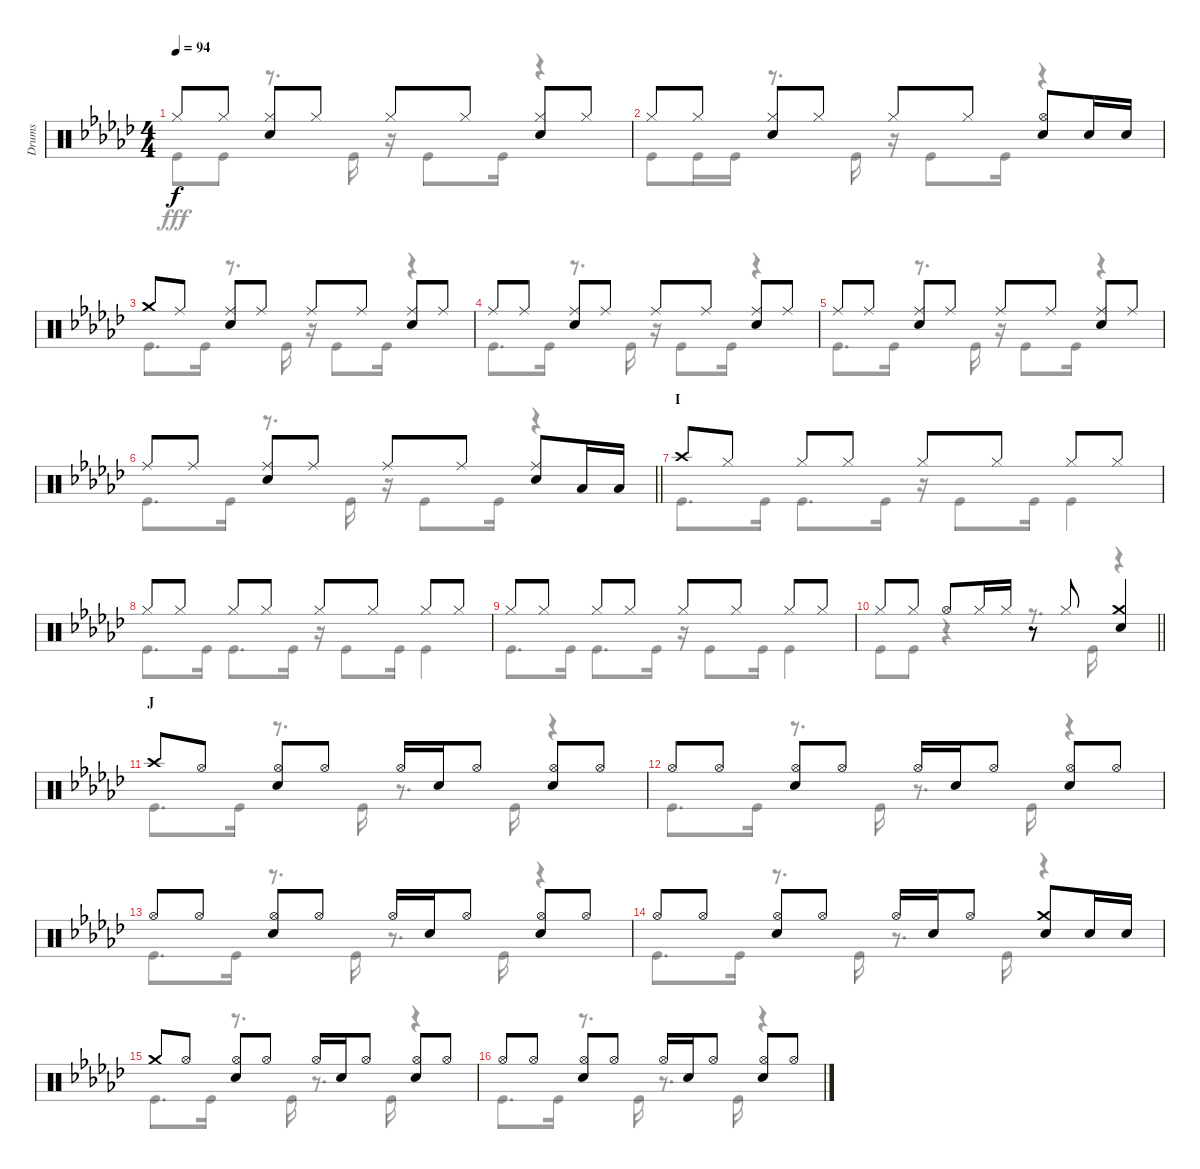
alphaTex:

\track ("Drums" "Drums") {instrument percussion}
\staff {score}
\articulation defaults
\voice
\ts (4 4)
\tempo 94
\clef neutral
\ks gb "Hi-Hat (closed)".8{dy f} "Hi-Hat (closed)".8
("Hi-Hat (closed)" "Snare (hit) 2").8 "Hi-Hat (closed)".8 "Hi-Hat (closed)".8 "Hi-Hat (closed)".8 ("Hi-Hat (closed)" "Snare (hit) 2").8 "Hi-Hat (closed)".8 |
"Hi-Hat (closed)".8 "Hi-Hat (closed)".8 ("Hi-Hat (closed)" "Snare (hit) 2").8 "Hi-Hat (closed)".8 "Hi-Hat (closed)".8 "Hi-Hat (closed)".8 ("Hi-Hat (open)" "Snare (hit) 2").8 "Snare (hit) 2".16 "Snare (hit) 2".16 |
"Crash medium (hit)".8 "Ride (middle)".8 ("Ride (middle)" "Snare (hit) 2").8 "Ride (middle)".8 "Ride (middle)".8 "Ride (middle)".8 ("Ride (middle)" "Snare (hit) 2").8 "Ride (middle)".8 |
"Ride (middle)".8 "Ride (middle)".8 ("Ride (middle)" "Snare (hit) 2").8 "Ride (middle)".8 "Ride (middle)".8 "Ride (middle)".8 ("Ride (middle)" "Snare (hit) 2").8 "Ride (middle)".8 |
"Ride (middle)".8 "Ride (middle)".8 ("Ride (middle)" "Snare (hit) 2").8 "Ride (middle)".8 "Ride (middle)".8 "Ride (middle)".8 ("Ride (middle)" "Snare (hit) 2").8 "Ride (middle)".8 |
\barLineRight lightlight "Ride (middle)".8 "Ride (middle)".8
("Ride (middle)" "Snare (hit) 2").8 "Ride (middle)".8 "Ride (middle)".8 "Ride (middle)".8 ("Ride (middle)" "Snare (hit) 2").8 "Low Tom (hit)".16 "Low Tom (hit)".16 |
\section ("" "I")
"Crash high (hit)".8 "Hi-Hat (closed)".8 "Hi-Hat (closed)".8 "Hi-Hat (closed)".8 "Hi-Hat (closed)".8 "Hi-Hat (closed)".8 "Hi-Hat (closed)".8 "Hi-Hat (closed)".8 |
"Hi-Hat (closed)".8 "Hi-Hat (closed)".8 "Hi-Hat (closed)".8 "Hi-Hat (closed)".8 "Hi-Hat (closed)".8 "Hi-Hat (closed)".8 "Hi-Hat (closed)".8 "Hi-Hat (closed)".8 |
"Hi-Hat (closed)".8 "Hi-Hat (closed)".8 "Hi-Hat (closed)".8 "Hi-Hat (closed)".8 "Hi-Hat (closed)".8 "Hi-Hat (closed)".8 "Hi-Hat (closed)".8 "Hi-Hat (closed)".8 |
\barLineRight lightlight "Hi-Hat (closed)".8 "Hi-Hat (closed)".8 "Hi-Hat (open)".8 "Hi-Hat (closed)".16 "Hi-Hat (closed)".16
r.8 "Hi-Hat (closed)".8 ("Crash medium (hit)" "Snare (hit) 2").4 |
\section ("" "J")
"Crash high (hit)".8 "Hi-Hat (open)".8 ("Hi-Hat (open)" "Snare (hit) 2").8 "Hi-Hat (open)".8 "Hi-Hat (open)".16 "Snare (hit) 2".16 "Hi-Hat (open)".8 ("Hi-Hat (open)" "Snare (hit) 2").8 "Hi-Hat (open)".8 |
"Hi-Hat (open)".8 "Hi-Hat (open)".8 ("Hi-Hat (open)" "Snare (hit) 2").8 "Hi-Hat (open)".8 "Hi-Hat (open)".16 "Snare (hit) 2".16 "Hi-Hat (open)".8 ("Hi-Hat (open)" "Snare (hit) 2").8 "Hi-Hat (open)".8 |
"Hi-Hat (open)".8 "Hi-Hat (open)".8 ("Hi-Hat (open)" "Snare (hit) 2").8 "Hi-Hat (open)".8 "Hi-Hat (open)".16 "Snare (hit) 2".16 "Hi-Hat (open)".8 ("Hi-Hat (open)" "Snare (hit) 2").8 "Hi-Hat (open)".8 |
"Hi-Hat (open)".8 "Hi-Hat (open)".8 ("Hi-Hat (open)" "Snare (hit) 2").8 "Hi-Hat (open)".8 "Hi-Hat (open)".16 "Snare (hit) 2".16 "Hi-Hat (open)".8 ("Crash medium (hit)" "Snare (hit) 2").8 "Snare (hit) 2".16 "Snare (hit) 2".16 |
"Crash medium (hit)".8 "Hi-Hat (open)".8 ("Hi-Hat (open)" "Snare (hit) 2").8 "Hi-Hat (open)".8 "Hi-Hat (open)".16 "Snare (hit) 2".16 "Hi-Hat (open)".8 ("Hi-Hat (open)" "Snare (hit) 2").8 "Hi-Hat (open)".8 |
"Hi-Hat (open)".8 "Hi-Hat (open)".8 ("Hi-Hat (open)" "Snare (hit) 2").8 "Hi-Hat (open)".8 "Hi-Hat (open)".16 "Snare (hit) 2".16 "Hi-Hat (open)".8 ("Hi-Hat (open)" "Snare (hit) 2").8 "Hi-Hat (open)".8
\voice
\clef neutral
\ottava regular
\simile none
\ks gb "Kick (hit)".8{dy fff} "Kick (hit)".8
r.8{d} "Kick (hit)".16 r.16 "Kick (hit)".8 "Kick (hit)".16 r.4 |
"Kick (hit)".8 "Kick (hit)".16 "Kick (hit)".16 r.8{d} "Kick (hit)".16 r.16 "Kick (hit)".8 "Kick (hit)".16 r.4 |
"Kick (hit)".8{d} "Kick (hit)".16 r.8{d} "Kick (hit)".16 r.16 "Kick (hit)".8 "Kick (hit)".16 r.4 |
"Kick (hit)".8{d} "Kick (hit)".16 r.8{d} "Kick (hit)".16 r.16 "Kick (hit)".8 "Kick (hit)".16 r.4 |
"Kick (hit)".8{d} "Kick (hit)".16 r.8{d} "Kick (hit)".16 r.16 "Kick (hit)".8 "Kick (hit)".16 r.4 |
\barLineRight lightlight "Kick (hit)".8{d} "Kick (hit)".16
r.8{d} "Kick (hit)".16 r.16 "Kick (hit)".8 "Kick (hit)".16 r.4 |
"Kick (hit)".8{d} "Kick (hit)".16 "Kick (hit)".8{d} "Kick (hit)".16 r.16 "Kick (hit)".8 "Kick (hit)".16 "Kick (hit)".4 |
"Kick (hit)".8{d} "Kick (hit)".16 "Kick (hit)".8{d} "Kick (hit)".16 r.16 "Kick (hit)".8 "Kick (hit)".16 "Kick (hit)".4 |
"Kick (hit)".8{d} "Kick (hit)".16 "Kick (hit)".8{d} "Kick (hit)".16 r.16 "Kick (hit)".8 "Kick (hit)".16 "Kick (hit)".4 |
\barLineRight lightlight "Kick (hit)".8 "Kick (hit)".8
r.4 r.8{d} "Kick (hit)".16 r.4 |
"Kick (hit)".8{d} "Kick (hit)".16 r.8{d} "Kick (hit)".16 r.8{d} "Kick (hit)".16 r.4 |
"Kick (hit)".8{d} "Kick (hit)".16 r.8{d} "Kick (hit)".16 r.8{d} "Kick (hit)".16 r.4 |
"Kick (hit)".8{d} "Kick (hit)".16 r.8{d} "Kick (hit)".16 r.8{d} "Kick (hit)".16 r.4 |
"Kick (hit)".8{d} "Kick (hit)".16 r.8{d} "Kick (hit)".16 r.8{d} "Kick (hit)".16 r.4 |
"Kick (hit)".8{d} "Kick (hit)".16 r.8{d} "Kick (hit)".16 r.8{d} "Kick (hit)".16 r.4 |
"Kick (hit)".8{d} "Kick (hit)".16 r.8{d} "Kick (hit)".16 r.8{d} "Kick (hit)".16 r.4
